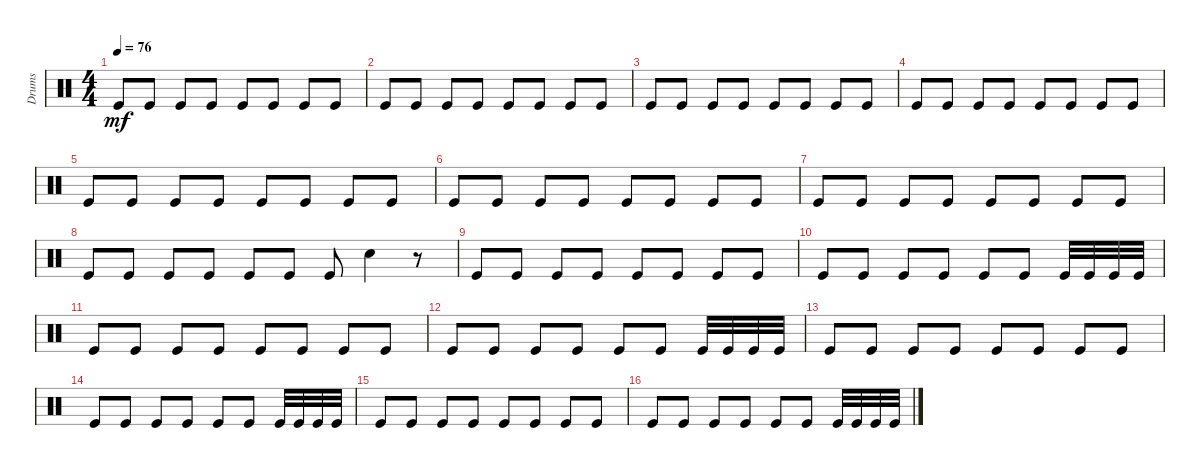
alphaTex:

\track ("Drumkit" "Drums") {instrument percussion}
\staff {score}
\articulation defaults
\ts (4 4)
\tempo 76
\clef neutral
\ks c "Kick (hit)".8{dy mf} "Kick (hit)".8 "Kick (hit)".8 "Kick (hit)".8 "Kick (hit)".8 "Kick (hit)".8 "Kick (hit)".8 "Kick (hit)".8
|
"Kick (hit)".8 "Kick (hit)".8 "Kick (hit)".8 "Kick (hit)".8 "Kick (hit)".8 "Kick (hit)".8 "Kick (hit)".8 "Kick (hit)".8 |
"Kick (hit)".8 "Kick (hit)".8 "Kick (hit)".8 "Kick (hit)".8 "Kick (hit)".8 "Kick (hit)".8 "Kick (hit)".8 "Kick (hit)".8 |
"Kick (hit)".8 "Kick (hit)".8 "Kick (hit)".8 "Kick (hit)".8 "Kick (hit)".8 "Kick (hit)".8 "Kick (hit)".8 "Kick (hit)".8 |
"Kick (hit)".8 "Kick (hit)".8 "Kick (hit)".8 "Kick (hit)".8 "Kick (hit)".8 "Kick (hit)".8 "Kick (hit)".8 "Kick (hit)".8 |
"Kick (hit)".8 "Kick (hit)".8 "Kick (hit)".8 "Kick (hit)".8 "Kick (hit)".8 "Kick (hit)".8 "Kick (hit)".8 "Kick (hit)".8 |
"Kick (hit)".8 "Kick (hit)".8 "Kick (hit)".8 "Kick (hit)".8 "Kick (hit)".8 "Kick (hit)".8 "Kick (hit)".8 "Kick (hit)".8 |
"Kick (hit)".8 "Kick (hit)".8 "Kick (hit)".8 "Kick (hit)".8 "Kick (hit)".8 "Kick (hit)".8 "Kick (hit)".8 "Snare (hit) 2".4 r.8 |
"Kick (hit)".8 "Kick (hit)".8 "Kick (hit)".8 "Kick (hit)".8 "Kick (hit)".8 "Kick (hit)".8 "Kick (hit)".8 "Kick (hit)".8 |
"Kick (hit)".8 "Kick (hit)".8 "Kick (hit)".8 "Kick (hit)".8 "Kick (hit)".8 "Kick (hit)".8 "Kick (hit)".32 "Kick (hit)".32 "Kick (hit)".32 "Kick (hit)".32 |
"Kick (hit)".8 "Kick (hit)".8 "Kick (hit)".8 "Kick (hit)".8 "Kick (hit)".8 "Kick (hit)".8 "Kick (hit)".8 "Kick (hit)".8 |
"Kick (hit)".8 "Kick (hit)".8 "Kick (hit)".8 "Kick (hit)".8 "Kick (hit)".8 "Kick (hit)".8 "Kick (hit)".32 "Kick (hit)".32 "Kick (hit)".32 "Kick (hit)".32 |
"Kick (hit)".8 "Kick (hit)".8 "Kick (hit)".8 "Kick (hit)".8 "Kick (hit)".8 "Kick (hit)".8 "Kick (hit)".8 "Kick (hit)".8 |
"Kick (hit)".8 "Kick (hit)".8 "Kick (hit)".8 "Kick (hit)".8 "Kick (hit)".8 "Kick (hit)".8 "Kick (hit)".32 "Kick (hit)".32 "Kick (hit)".32 "Kick (hit)".32 |
"Kick (hit)".8 "Kick (hit)".8 "Kick (hit)".8 "Kick (hit)".8 "Kick (hit)".8 "Kick (hit)".8 "Kick (hit)".8 "Kick (hit)".8 |
"Kick (hit)".8 "Kick (hit)".8 "Kick (hit)".8 "Kick (hit)".8 "Kick (hit)".8 "Kick (hit)".8 "Kick (hit)".32 "Kick (hit)".32 "Kick (hit)".32 "Kick (hit)".32
